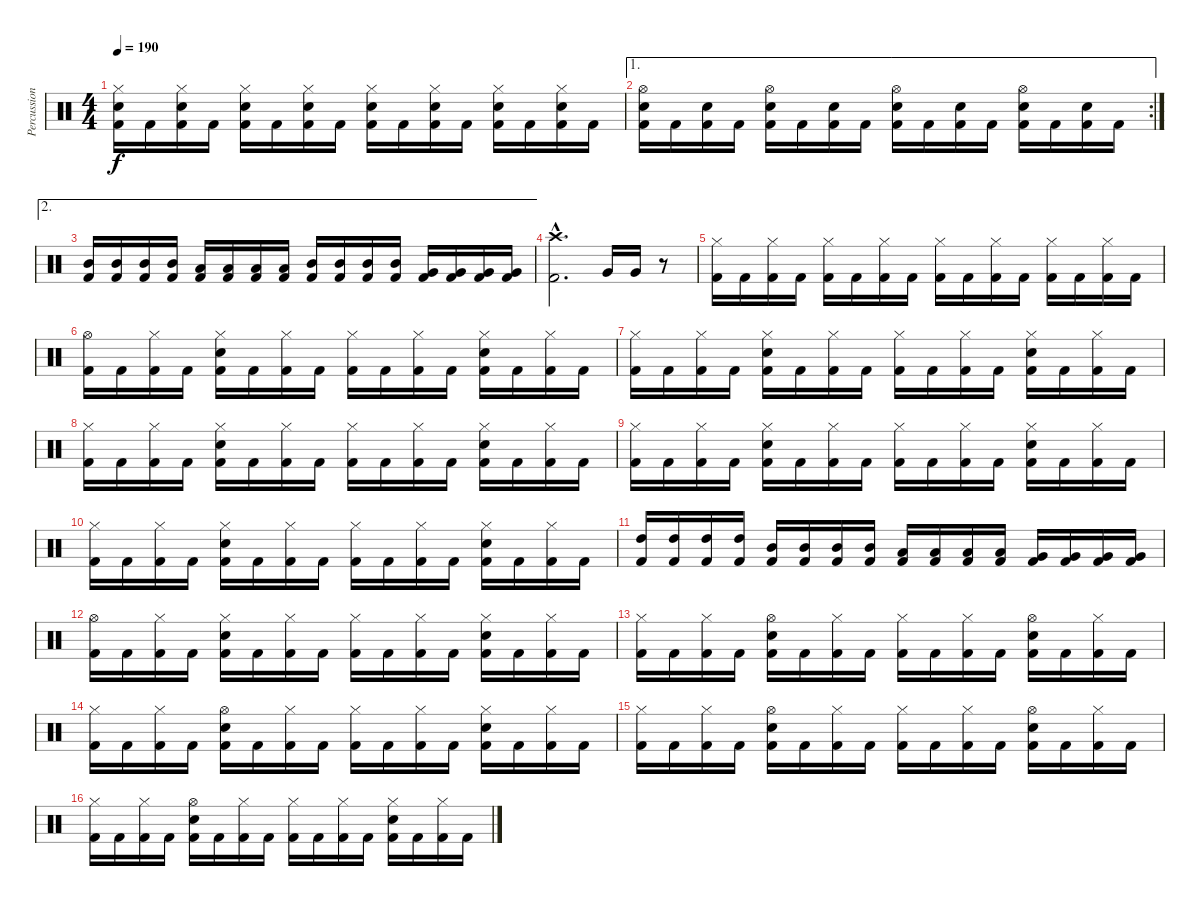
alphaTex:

\track ("Percussion" "Percussion") {instrument percussion}
\staff {score}
\articulation defaults
\ts (4 4)
\tempo 190
\clef neutral
\ks c
("Hi-Hat (closed)" "Snare (hit) 2" "Kick (hit) 2").16{dy f} "Kick (hit) 2".16 ("Hi-Hat (closed)" "Snare (hit) 2" "Kick (hit) 2").16 "Kick (hit) 2".16 ("Hi-Hat (closed)" "Snare (hit) 2" "Kick (hit) 2").16 "Kick (hit) 2".16 ("Hi-Hat (closed)" "Snare (hit) 2" "Kick (hit) 2").16 "Kick (hit) 2".16 ("Hi-Hat (closed)" "Snare (hit) 2" "Kick (hit) 2").16 "Kick (hit) 2".16 ("Hi-Hat (closed)" "Snare (hit) 2" "Kick (hit) 2").16 "Kick (hit) 2".16 ("Hi-Hat (closed)" "Snare (hit) 2" "Kick (hit) 2").16 "Kick (hit) 2".16 ("Hi-Hat (closed)" "Snare (hit) 2" "Kick (hit) 2").16 "Kick (hit) 2".16 |
\ae 1
\rc 2
("Hi-Hat (open)" "Snare (hit) 2" "Kick (hit) 2").16 "Kick (hit) 2".16 ("Snare (hit) 2" "Kick (hit) 2").16 "Kick (hit) 2".16 ("Hi-Hat (open)" "Snare (hit) 2" "Kick (hit) 2").16 "Kick (hit) 2".16 ("Snare (hit) 2" "Kick (hit) 2").16 "Kick (hit) 2".16 ("Hi-Hat (open)" "Snare (hit) 2" "Kick (hit) 2").16 "Kick (hit) 2".16 ("Snare (hit) 2" "Kick (hit) 2").16 "Kick (hit) 2".16 ("Hi-Hat (open)" "Snare (hit) 2" "Kick (hit) 2").16 "Kick (hit) 2".16 ("Snare (hit) 2" "Kick (hit) 2").16 "Kick (hit) 2".16 |
\ae 2
("Mid Tom (hit)" "Kick (hit) 2").16 ("Mid Tom (hit)" "Kick (hit) 2").16 ("Mid Tom (hit)" "Kick (hit) 2").16 ("Mid Tom (hit)" "Kick (hit) 2").16 ("Low Tom (hit)" "Kick (hit) 2").16 ("Low Tom (hit)" "Kick (hit) 2").16 ("Low Tom (hit)" "Kick (hit) 2").16 ("Low Tom (hit)" "Kick (hit) 2").16 ("Mid Tom (hit)" "Kick (hit) 2").16 ("Mid Tom (hit)" "Kick (hit) 2").16 ("Mid Tom (hit)" "Kick (hit) 2").16 ("Mid Tom (hit)" "Kick (hit) 2").16 ("Very Low Tom (hit)" "Kick (hit) 2").16 ("Very Low Tom (hit)" "Kick (hit) 2").16 ("Very Low Tom (hit)" "Kick (hit) 2").16 ("Very Low Tom (hit)" "Kick (hit) 2").16 |
("Crash high (hit)"{hac} "Kick (hit) 2"{hac}).2{d} "Very Low Tom (hit)".16 "Very Low Tom (hit)".16 r.8 |
\section ("" "")
("Hi-Hat (closed)" "Kick (hit) 2").16 "Kick (hit) 2".16 ("Hi-Hat (closed)" "Kick (hit) 2").16 "Kick (hit) 2".16 ("Hi-Hat (closed)" "Kick (hit) 2").16 "Kick (hit) 2".16 ("Hi-Hat (closed)" "Kick (hit) 2").16 "Kick (hit) 2".16 ("Hi-Hat (closed)" "Kick (hit) 2").16 "Kick (hit) 2".16 ("Hi-Hat (closed)" "Kick (hit) 2").16 "Kick (hit) 2".16 ("Hi-Hat (closed)" "Kick (hit) 2").16 "Kick (hit) 2".16 ("Hi-Hat (closed)" "Kick (hit) 2").16 "Kick (hit) 2".16 |
("Hi-Hat (open)" "Kick (hit) 2").16 "Kick (hit) 2".16 ("Hi-Hat (closed)" "Kick (hit) 2").16 "Kick (hit) 2".16 ("Hi-Hat (closed)" "Snare (hit) 2" "Kick (hit) 2").16 "Kick (hit) 2".16 ("Hi-Hat (closed)" "Kick (hit) 2").16 "Kick (hit) 2".16 ("Hi-Hat (closed)" "Kick (hit) 2").16 "Kick (hit) 2".16 ("Hi-Hat (closed)" "Kick (hit) 2").16 "Kick (hit) 2".16 ("Hi-Hat (closed)" "Snare (hit) 2" "Kick (hit) 2").16 "Kick (hit) 2".16 ("Hi-Hat (closed)" "Kick (hit) 2").16 "Kick (hit) 2".16 |
("Hi-Hat (closed)" "Kick (hit) 2").16 "Kick (hit) 2".16 ("Hi-Hat (closed)" "Kick (hit) 2").16 "Kick (hit) 2".16 ("Hi-Hat (closed)" "Snare (hit) 2" "Kick (hit) 2").16 "Kick (hit) 2".16 ("Hi-Hat (closed)" "Kick (hit) 2").16 "Kick (hit) 2".16 ("Hi-Hat (closed)" "Kick (hit) 2").16 "Kick (hit) 2".16 ("Hi-Hat (closed)" "Kick (hit) 2").16 "Kick (hit) 2".16 ("Hi-Hat (closed)" "Snare (hit) 2" "Kick (hit) 2").16 "Kick (hit) 2".16 ("Hi-Hat (closed)" "Kick (hit) 2").16 "Kick (hit) 2".16 |
("Hi-Hat (closed)" "Kick (hit) 2").16 "Kick (hit) 2".16 ("Hi-Hat (closed)" "Kick (hit) 2").16 "Kick (hit) 2".16 ("Hi-Hat (closed)" "Snare (hit) 2" "Kick (hit) 2").16 "Kick (hit) 2".16 ("Hi-Hat (closed)" "Kick (hit) 2").16 "Kick (hit) 2".16 ("Hi-Hat (closed)" "Kick (hit) 2").16 "Kick (hit) 2".16 ("Hi-Hat (closed)" "Kick (hit) 2").16 "Kick (hit) 2".16 ("Hi-Hat (closed)" "Snare (hit) 2" "Kick (hit) 2").16 "Kick (hit) 2".16 ("Hi-Hat (closed)" "Kick (hit) 2").16 "Kick (hit) 2".16 |
("Hi-Hat (closed)" "Kick (hit) 2").16 "Kick (hit) 2".16 ("Hi-Hat (closed)" "Kick (hit) 2").16 "Kick (hit) 2".16 ("Hi-Hat (closed)" "Snare (hit) 2" "Kick (hit) 2").16 "Kick (hit) 2".16 ("Hi-Hat (closed)" "Kick (hit) 2").16 "Kick (hit) 2".16 ("Hi-Hat (closed)" "Kick (hit) 2").16 "Kick (hit) 2".16 ("Hi-Hat (closed)" "Kick (hit) 2").16 "Kick (hit) 2".16 ("Hi-Hat (closed)" "Snare (hit) 2" "Kick (hit) 2").16 "Kick (hit) 2".16 ("Hi-Hat (closed)" "Kick (hit) 2").16 "Kick (hit) 2".16 |
("Hi-Hat (closed)" "Kick (hit) 2").16 "Kick (hit) 2".16 ("Hi-Hat (closed)" "Kick (hit) 2").16 "Kick (hit) 2".16 ("Hi-Hat (closed)" "Snare (hit) 2" "Kick (hit) 2").16 "Kick (hit) 2".16 ("Hi-Hat (closed)" "Kick (hit) 2").16 "Kick (hit) 2".16 ("Hi-Hat (closed)" "Kick (hit) 2").16 "Kick (hit) 2".16 ("Hi-Hat (closed)" "Kick (hit) 2").16 "Kick (hit) 2".16 ("Hi-Hat (closed)" "Snare (hit) 2" "Kick (hit) 2").16 "Kick (hit) 2".16 ("Hi-Hat (closed)" "Kick (hit) 2").16 "Kick (hit) 2".16 |
("High Tom (hit)" "Kick (hit) 2").16 ("High Tom (hit)" "Kick (hit) 2").16 ("High Tom (hit)" "Kick (hit) 2").16 ("High Tom (hit)" "Kick (hit) 2").16 ("Mid Tom (hit)" "Kick (hit) 2").16 ("Mid Tom (hit)" "Kick (hit) 2").16 ("Mid Tom (hit)" "Kick (hit) 2").16 ("Mid Tom (hit)" "Kick (hit) 2").16 ("Low Tom (hit)" "Kick (hit) 2").16 ("Low Tom (hit)" "Kick (hit) 2").16 ("Low Tom (hit)" "Kick (hit) 2").16 ("Low Tom (hit)" "Kick (hit) 2").16 ("Very Low Tom (hit)" "Kick (hit) 2").16 ("Very Low Tom (hit)" "Kick (hit) 2").16 ("Very Low Tom (hit)" "Kick (hit) 2").16 ("Very Low Tom (hit)" "Kick (hit) 2").16 |
("Hi-Hat (open)" "Kick (hit) 2").16 "Kick (hit) 2".16 ("Hi-Hat (closed)" "Kick (hit) 2").16 "Kick (hit) 2".16 ("Hi-Hat (closed)" "Snare (hit) 2" "Kick (hit) 2").16 "Kick (hit) 2".16 ("Hi-Hat (closed)" "Kick (hit) 2").16 "Kick (hit) 2".16 ("Hi-Hat (closed)" "Kick (hit) 2").16 "Kick (hit) 2".16 ("Hi-Hat (closed)" "Kick (hit) 2").16 "Kick (hit) 2".16 ("Hi-Hat (closed)" "Snare (hit) 2" "Kick (hit) 2").16 "Kick (hit) 2".16 ("Hi-Hat (closed)" "Kick (hit) 2").16 "Kick (hit) 2".16 |
("Hi-Hat (closed)" "Kick (hit) 2").16 "Kick (hit) 2".16 ("Hi-Hat (closed)" "Kick (hit) 2").16 "Kick (hit) 2".16 ("Hi-Hat (open)" "Snare (hit) 2" "Kick (hit) 2").16 "Kick (hit) 2".16 ("Hi-Hat (closed)" "Kick (hit) 2").16 "Kick (hit) 2".16 ("Hi-Hat (closed)" "Kick (hit) 2").16 "Kick (hit) 2".16 ("Hi-Hat (closed)" "Kick (hit) 2").16 "Kick (hit) 2".16 ("Hi-Hat (open)" "Snare (hit) 2" "Kick (hit) 2").16 "Kick (hit) 2".16 ("Hi-Hat (closed)" "Kick (hit) 2").16 "Kick (hit) 2".16 |
("Hi-Hat (closed)" "Kick (hit) 2").16 "Kick (hit) 2".16 ("Hi-Hat (closed)" "Kick (hit) 2").16 "Kick (hit) 2".16 ("Hi-Hat (open)" "Snare (hit) 2" "Kick (hit) 2").16 "Kick (hit) 2".16 ("Hi-Hat (closed)" "Kick (hit) 2").16 "Kick (hit) 2".16 ("Hi-Hat (closed)" "Kick (hit) 2").16 "Kick (hit) 2".16 ("Hi-Hat (closed)" "Kick (hit) 2").16 "Kick (hit) 2".16 ("Hi-Hat (closed)" "Snare (hit) 2" "Kick (hit) 2").16 "Kick (hit) 2".16 ("Hi-Hat (closed)" "Kick (hit) 2").16 "Kick (hit) 2".16 |
("Hi-Hat (closed)" "Kick (hit) 2").16 "Kick (hit) 2".16 ("Hi-Hat (closed)" "Kick (hit) 2").16 "Kick (hit) 2".16 ("Hi-Hat (open)" "Snare (hit) 2" "Kick (hit) 2").16 "Kick (hit) 2".16 ("Hi-Hat (closed)" "Kick (hit) 2").16 "Kick (hit) 2".16 ("Hi-Hat (closed)" "Kick (hit) 2").16 "Kick (hit) 2".16 ("Hi-Hat (closed)" "Kick (hit) 2").16 "Kick (hit) 2".16 ("Hi-Hat (open)" "Snare (hit) 2" "Kick (hit) 2").16 "Kick (hit) 2".16 ("Hi-Hat (closed)" "Kick (hit) 2").16 "Kick (hit) 2".16 |
("Hi-Hat (closed)" "Kick (hit) 2").16 "Kick (hit) 2".16 ("Hi-Hat (closed)" "Kick (hit) 2").16 "Kick (hit) 2".16 ("Hi-Hat (open)" "Snare (hit) 2" "Kick (hit) 2").16 "Kick (hit) 2".16 ("Hi-Hat (closed)" "Kick (hit) 2").16 "Kick (hit) 2".16 ("Hi-Hat (closed)" "Kick (hit) 2").16 "Kick (hit) 2".16 ("Hi-Hat (closed)" "Kick (hit) 2").16 "Kick (hit) 2".16 ("Hi-Hat (closed)" "Snare (hit) 2" "Kick (hit) 2").16 "Kick (hit) 2".16 ("Hi-Hat (closed)" "Kick (hit) 2").16 "Kick (hit) 2".16
